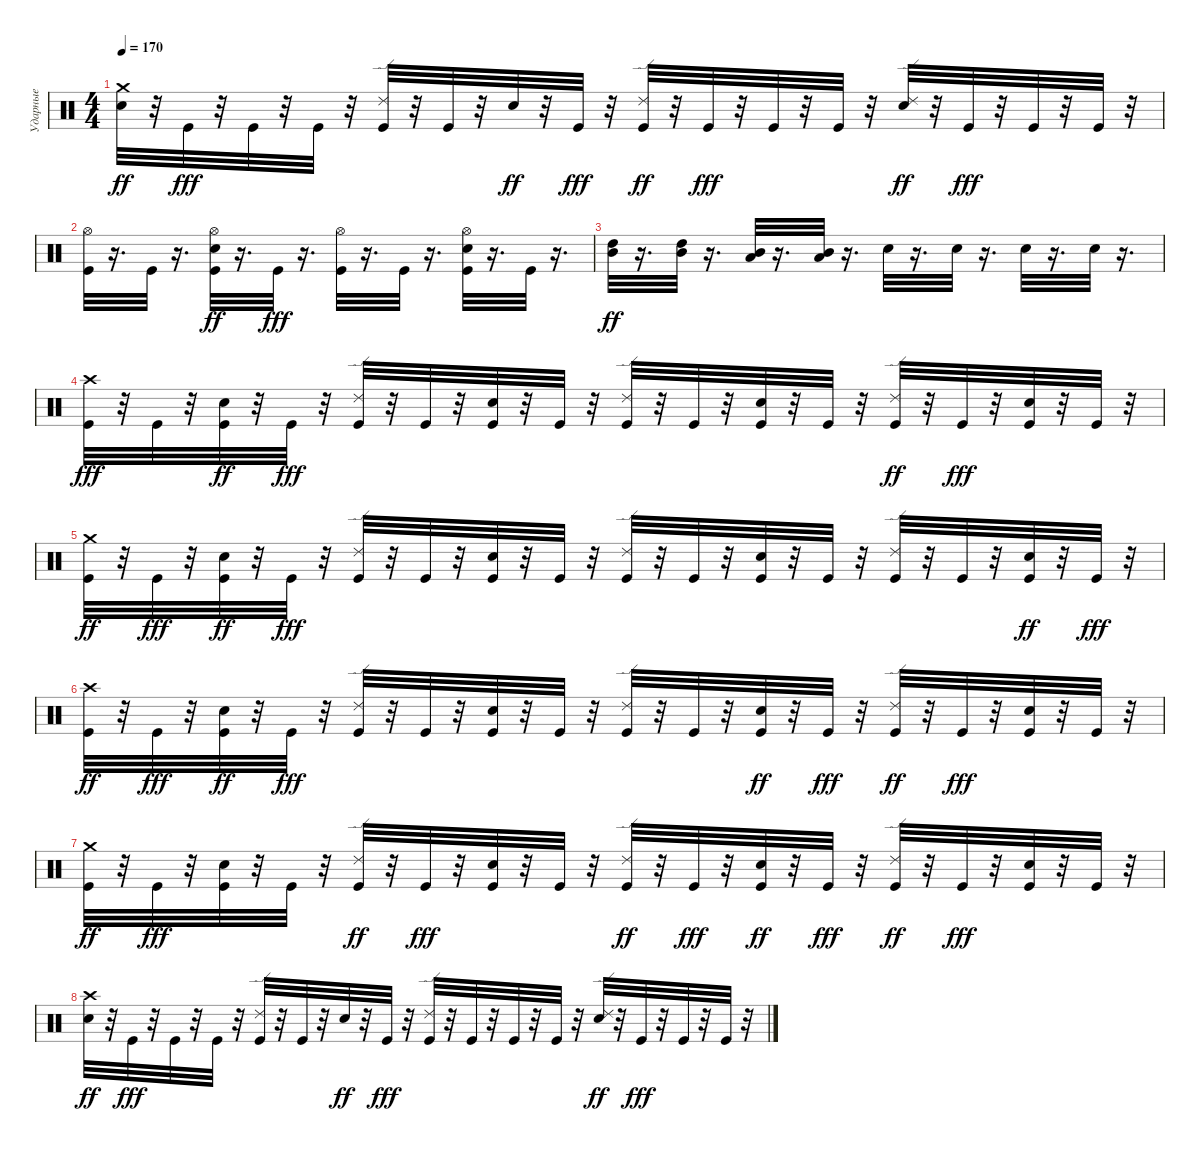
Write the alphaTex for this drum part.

\track ("Ударные" "Ударные") {instrument percussion}
\staff {score}
\articulation defaults
\ts (4 4)
\tempo 170
\clef neutral
\ks c
("Snare (hit) 2" "Crash medium (hit)").32{dy ff} r.32 "Kick (hit)".32{dy fff} r.32 "Kick (hit)".32 r.32 "Kick (hit)".32 r.32 ("Ride (edge) 2" "Kick (hit)").32 r.32 "Kick (hit)".32 r.32 "Snare (hit) 2".32{dy ff} r.32 "Kick (hit)".32{dy fff} r.32 ("Kick (hit)" "Ride (edge) 2").32{dy ff} r.32 "Kick (hit)".32{dy fff} r.32 "Kick (hit)".32 r.32 "Kick (hit)".32 r.32 ("Ride (edge) 2" "Snare (hit) 2").32{dy ff} r.32 "Kick (hit)".32{dy fff} r.32 "Kick (hit)".32 r.32 "Kick (hit)".32 r.32 |
("Kick (hit)" "Hi-Hat (open)").32 r.16{d} "Kick (hit)".32 r.16{d} ("Kick (hit)" "Hi-Hat (open)" "Snare (hit) 2").32{dy ff} r.16{d} "Kick (hit)".32{dy fff} r.16{d} ("Kick (hit)" "Hi-Hat (open)").32 r.16{d} "Kick (hit)".32 r.16{d} ("Snare (hit) 2" "Kick (hit)" "Hi-Hat (open)").32 r.16{d} "Kick (hit)".32 r.16{d} |
("High Tom (hit)" "Mid Tom (hit)").32{dy ff} r.16{d} ("Mid Tom (hit)" "High Tom (hit)").32 r.16{d} ("Mid Tom (hit)" "Low Tom (hit)").32 r.16{d} ("Mid Tom (hit)" "Low Tom (hit)").32 r.16{d} "Snare (hit) 2".32 r.16{d} "Snare (hit) 2".32 r.16{d} "Snare (hit) 2".32 r.16{d} "Snare (hit) 2".32 r.16{d} |
("Crash high (hit)" "Kick (hit)").32{dy fff} r.32 "Kick (hit)".32 r.32 ("Kick (hit)" "Snare (hit) 2").32{dy ff} r.32 "Kick (hit)".32{dy fff} r.32 ("Ride (edge) 2" "Kick (hit)").32 r.32 "Kick (hit)".32 r.32 ("Snare (hit) 2" "Kick (hit)").32 r.32 "Kick (hit)".32 r.32 ("Ride (edge) 2" "Kick (hit)").32 r.32 "Kick (hit)".32 r.32 ("Snare (hit) 2" "Kick (hit)").32 r.32 "Kick (hit)".32 r.32 ("Kick (hit)" "Ride (edge) 2").32{dy ff} r.32 "Kick (hit)".32{dy fff} r.32 ("Snare (hit) 2" "Kick (hit)").32 r.32 "Kick (hit)".32 r.32 |
("Kick (hit)" "Crash medium (hit)").32{dy ff} r.32 "Kick (hit)".32{dy fff} r.32 ("Kick (hit)" "Snare (hit) 2").32{dy ff} r.32 "Kick (hit)".32{dy fff} r.32 ("Ride (edge) 2" "Kick (hit)").32 r.32 "Kick (hit)".32 r.32 ("Snare (hit) 2" "Kick (hit)").32 r.32 "Kick (hit)".32 r.32 ("Ride (edge) 2" "Kick (hit)").32 r.32 "Kick (hit)".32 r.32 ("Snare (hit) 2" "Kick (hit)").32 r.32 "Kick (hit)".32 r.32 ("Ride (edge) 2" "Kick (hit)").32 r.32 "Kick (hit)".32 r.32 ("Kick (hit)" "Snare (hit) 2").32{dy ff} r.32 "Kick (hit)".32{dy fff} r.32 |
("Kick (hit)" "Crash high (hit)").32{dy ff} r.32 "Kick (hit)".32{dy fff} r.32 ("Kick (hit)" "Snare (hit) 2").32{dy ff} r.32 "Kick (hit)".32{dy fff} r.32 ("Ride (edge) 2" "Kick (hit)").32 r.32 "Kick (hit)".32 r.32 ("Snare (hit) 2" "Kick (hit)").32 r.32 "Kick (hit)".32 r.32 ("Ride (edge) 2" "Kick (hit)").32 r.32 "Kick (hit)".32 r.32 ("Kick (hit)" "Snare (hit) 2").32{dy ff} r.32 "Kick (hit)".32{dy fff} r.32 ("Kick (hit)" "Ride (edge) 2").32{dy ff} r.32 "Kick (hit)".32{dy fff} r.32 ("Snare (hit) 2" "Kick (hit)").32 r.32 "Kick (hit)".32 r.32 |
("Kick (hit)" "Crash medium (hit)").32{dy ff} r.32 "Kick (hit)".32{dy fff} r.32 ("Snare (hit) 2" "Kick (hit)").32 r.32 "Kick (hit)".32 r.32 ("Kick (hit)" "Ride (edge) 2").32{dy ff} r.32 "Kick (hit)".32{dy fff} r.32 ("Snare (hit) 2" "Kick (hit)").32 r.32 "Kick (hit)".32 r.32 ("Kick (hit)" "Ride (edge) 2").32{dy ff} r.32 "Kick (hit)".32{dy fff} r.32 ("Kick (hit)" "Snare (hit) 2").32{dy ff} r.32 "Kick (hit)".32{dy fff} r.32 ("Kick (hit)" "Ride (edge) 2").32{dy ff} r.32 "Kick (hit)".32{dy fff} r.32 ("Snare (hit) 2" "Kick (hit)").32 r.32 "Kick (hit)".32 r.32 |
("Crash high (hit)" "Snare (hit) 2").32{dy ff} r.32 "Kick (hit)".32{dy fff} r.32 "Kick (hit)".32 r.32 "Kick (hit)".32 r.32 ("Ride (edge) 2" "Kick (hit)").32 r.32 "Kick (hit)".32 r.32 "Snare (hit) 2".32{dy ff} r.32 "Kick (hit)".32{dy fff} r.32 ("Ride (edge) 2" "Kick (hit)").32 r.32 "Kick (hit)".32 r.32 "Kick (hit)".32 r.32 "Kick (hit)".32 r.32 ("Ride (edge) 2" "Snare (hit) 2").32{dy ff} r.32 "Kick (hit)".32{dy fff} r.32 "Kick (hit)".32 r.32 "Kick (hit)".32 r.32
